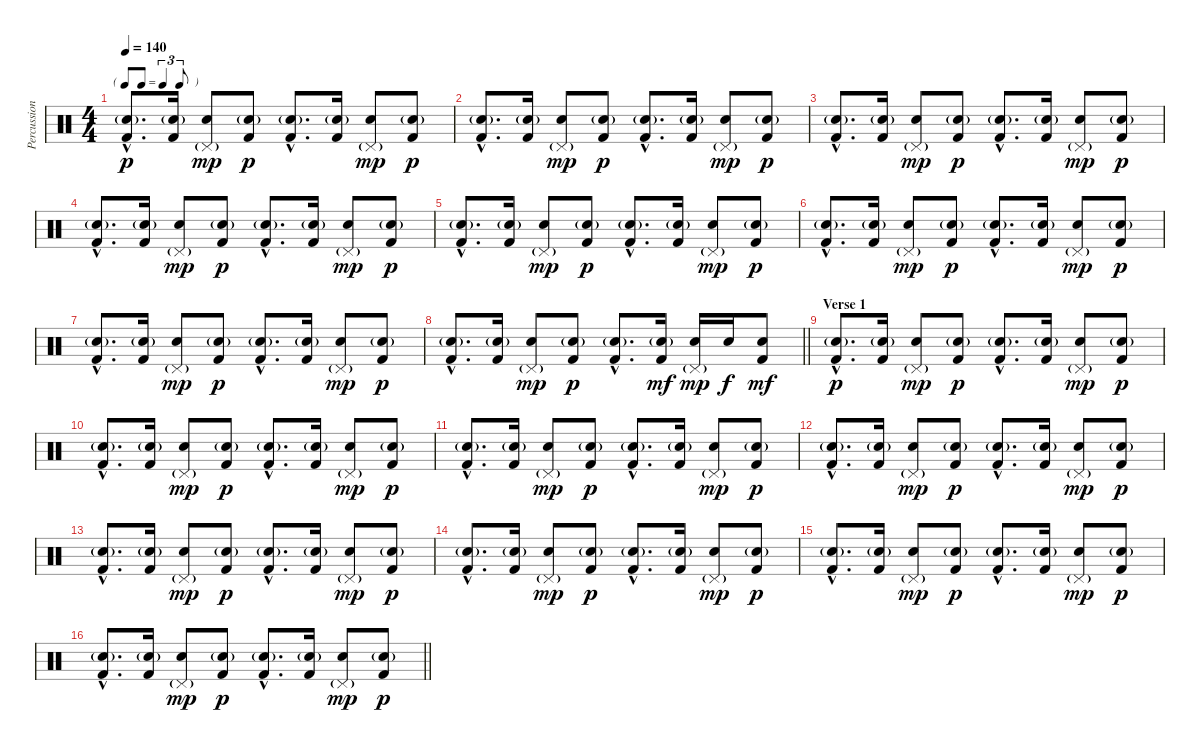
\track ("Percussion" "Percussion") {instrument percussion}
\staff {score}
\articulation defaults
\ts (4 4)
\tf triplet8th
\tempo 140
\clef neutral
\ks c
("Snare (hit) 2"{g hac} "Kick (hit) 2"{hac}).8{d dy p} ("Snare (hit) 2"{g} "Kick (hit) 2").16 ("Pedal Hi-Hat (hit)"{g} "Snare (hit) 2").8{dy mp} ("Snare (hit) 2"{g} "Kick (hit) 2").8{dy p} ("Snare (hit) 2"{g hac} "Kick (hit) 2"{hac}).8{d} ("Snare (hit) 2"{g} "Kick (hit) 2").16 ("Pedal Hi-Hat (hit)"{g} "Snare (hit) 2").8{dy mp} ("Snare (hit) 2"{g} "Kick (hit) 2").8{dy p} |
("Snare (hit) 2"{g hac} "Kick (hit) 2"{hac}).8{d} ("Snare (hit) 2"{g} "Kick (hit) 2").16 ("Pedal Hi-Hat (hit)"{g} "Snare (hit) 2").8{dy mp} ("Snare (hit) 2"{g} "Kick (hit) 2").8{dy p} ("Snare (hit) 2"{g hac} "Kick (hit) 2"{hac}).8{d} ("Snare (hit) 2"{g} "Kick (hit) 2").16 ("Pedal Hi-Hat (hit)"{g} "Snare (hit) 2").8{dy mp} ("Snare (hit) 2"{g} "Kick (hit) 2").8{dy p} |
("Snare (hit) 2"{g hac} "Kick (hit) 2"{hac}).8{d} ("Snare (hit) 2"{g} "Kick (hit) 2").16 ("Pedal Hi-Hat (hit)"{g} "Snare (hit) 2").8{dy mp} ("Snare (hit) 2"{g} "Kick (hit) 2").8{dy p} ("Snare (hit) 2"{g hac} "Kick (hit) 2"{hac}).8{d} ("Snare (hit) 2"{g} "Kick (hit) 2").16 ("Pedal Hi-Hat (hit)"{g} "Snare (hit) 2").8{dy mp} ("Snare (hit) 2"{g} "Kick (hit) 2").8{dy p} |
("Snare (hit) 2"{g hac} "Kick (hit) 2"{hac}).8{d} ("Snare (hit) 2"{g} "Kick (hit) 2").16 ("Pedal Hi-Hat (hit)"{g} "Snare (hit) 2").8{dy mp} ("Snare (hit) 2"{g} "Kick (hit) 2").8{dy p} ("Snare (hit) 2"{g hac} "Kick (hit) 2"{hac}).8{d} ("Snare (hit) 2"{g} "Kick (hit) 2").16 ("Pedal Hi-Hat (hit)"{g} "Snare (hit) 2").8{dy mp} ("Snare (hit) 2"{g} "Kick (hit) 2").8{dy p} |
("Snare (hit) 2"{g hac} "Kick (hit) 2"{hac}).8{d} ("Snare (hit) 2"{g} "Kick (hit) 2").16 ("Pedal Hi-Hat (hit)"{g} "Snare (hit) 2").8{dy mp} ("Snare (hit) 2"{g} "Kick (hit) 2").8{dy p} ("Snare (hit) 2"{g hac} "Kick (hit) 2"{hac}).8{d} ("Snare (hit) 2"{g} "Kick (hit) 2").16 ("Pedal Hi-Hat (hit)"{g} "Snare (hit) 2").8{dy mp} ("Snare (hit) 2"{g} "Kick (hit) 2").8{dy p} |
("Snare (hit) 2"{g hac} "Kick (hit) 2"{hac}).8{d} ("Snare (hit) 2"{g} "Kick (hit) 2").16 ("Pedal Hi-Hat (hit)"{g} "Snare (hit) 2").8{dy mp} ("Snare (hit) 2"{g} "Kick (hit) 2").8{dy p} ("Snare (hit) 2"{g hac} "Kick (hit) 2"{hac}).8{d} ("Snare (hit) 2"{g} "Kick (hit) 2").16 ("Pedal Hi-Hat (hit)"{g} "Snare (hit) 2").8{dy mp} ("Snare (hit) 2"{g} "Kick (hit) 2").8{dy p} |
("Snare (hit) 2"{g hac} "Kick (hit) 2"{hac}).8{d} ("Snare (hit) 2"{g} "Kick (hit) 2").16 ("Pedal Hi-Hat (hit)"{g} "Snare (hit) 2").8{dy mp} ("Snare (hit) 2"{g} "Kick (hit) 2").8{dy p} ("Snare (hit) 2"{g hac} "Kick (hit) 2"{hac}).8{d} ("Snare (hit) 2"{g} "Kick (hit) 2").16 ("Pedal Hi-Hat (hit)"{g} "Snare (hit) 2").8{dy mp} ("Snare (hit) 2"{g} "Kick (hit) 2").8{dy p} |
\barLineRight lightlight
("Snare (hit) 2"{g hac} "Kick (hit) 2"{hac}).8{d} ("Snare (hit) 2"{g} "Kick (hit) 2").16 ("Pedal Hi-Hat (hit)"{g} "Snare (hit) 2").8{dy mp} ("Snare (hit) 2"{g} "Kick (hit) 2").8{dy p} ("Snare (hit) 2"{g hac} "Kick (hit) 2"{hac}).8{d} ("Snare (hit) 2"{g} "Kick (hit) 2").16{dy mf} ("Pedal Hi-Hat (hit)"{g} "Snare (hit) 2").16{dy mp} "Snare (hit) 2".16{dy f} ("Snare (hit) 2" "Kick (hit) 2").8{dy mf} |
\section ("" "Verse 1")
("Snare (hit) 2"{g hac} "Kick (hit) 2"{hac}).8{d dy p} ("Snare (hit) 2"{g} "Kick (hit) 2").16 ("Pedal Hi-Hat (hit)"{g} "Snare (hit) 2").8{dy mp} ("Snare (hit) 2"{g} "Kick (hit) 2").8{dy p} ("Snare (hit) 2"{g hac} "Kick (hit) 2"{hac}).8{d} ("Snare (hit) 2"{g} "Kick (hit) 2").16 ("Pedal Hi-Hat (hit)"{g} "Snare (hit) 2").8{dy mp} ("Snare (hit) 2"{g} "Kick (hit) 2").8{dy p} |
("Snare (hit) 2"{g hac} "Kick (hit) 2"{hac}).8{d} ("Snare (hit) 2"{g} "Kick (hit) 2").16 ("Pedal Hi-Hat (hit)"{g} "Snare (hit) 2").8{dy mp} ("Snare (hit) 2"{g} "Kick (hit) 2").8{dy p} ("Snare (hit) 2"{g hac} "Kick (hit) 2"{hac}).8{d} ("Snare (hit) 2"{g} "Kick (hit) 2").16 ("Pedal Hi-Hat (hit)"{g} "Snare (hit) 2").8{dy mp} ("Snare (hit) 2"{g} "Kick (hit) 2").8{dy p} |
("Snare (hit) 2"{g hac} "Kick (hit) 2"{hac}).8{d} ("Snare (hit) 2"{g} "Kick (hit) 2").16 ("Pedal Hi-Hat (hit)"{g} "Snare (hit) 2").8{dy mp} ("Snare (hit) 2"{g} "Kick (hit) 2").8{dy p} ("Snare (hit) 2"{g hac} "Kick (hit) 2"{hac}).8{d} ("Snare (hit) 2"{g} "Kick (hit) 2").16 ("Pedal Hi-Hat (hit)"{g} "Snare (hit) 2").8{dy mp} ("Snare (hit) 2"{g} "Kick (hit) 2").8{dy p} |
("Snare (hit) 2"{g hac} "Kick (hit) 2"{hac}).8{d} ("Snare (hit) 2"{g} "Kick (hit) 2").16 ("Pedal Hi-Hat (hit)"{g} "Snare (hit) 2").8{dy mp} ("Snare (hit) 2"{g} "Kick (hit) 2").8{dy p} ("Snare (hit) 2"{g hac} "Kick (hit) 2"{hac}).8{d} ("Snare (hit) 2"{g} "Kick (hit) 2").16 ("Pedal Hi-Hat (hit)"{g} "Snare (hit) 2").8{dy mp} ("Snare (hit) 2"{g} "Kick (hit) 2").8{dy p} |
("Snare (hit) 2"{g hac} "Kick (hit) 2"{hac}).8{d} ("Snare (hit) 2"{g} "Kick (hit) 2").16 ("Pedal Hi-Hat (hit)"{g} "Snare (hit) 2").8{dy mp} ("Snare (hit) 2"{g} "Kick (hit) 2").8{dy p} ("Snare (hit) 2"{g hac} "Kick (hit) 2"{hac}).8{d} ("Snare (hit) 2"{g} "Kick (hit) 2").16 ("Pedal Hi-Hat (hit)"{g} "Snare (hit) 2").8{dy mp} ("Snare (hit) 2"{g} "Kick (hit) 2").8{dy p} |
("Snare (hit) 2"{g hac} "Kick (hit) 2"{hac}).8{d} ("Snare (hit) 2"{g} "Kick (hit) 2").16 ("Pedal Hi-Hat (hit)"{g} "Snare (hit) 2").8{dy mp} ("Snare (hit) 2"{g} "Kick (hit) 2").8{dy p} ("Snare (hit) 2"{g hac} "Kick (hit) 2"{hac}).8{d} ("Snare (hit) 2"{g} "Kick (hit) 2").16 ("Pedal Hi-Hat (hit)"{g} "Snare (hit) 2").8{dy mp} ("Snare (hit) 2"{g} "Kick (hit) 2").8{dy p} |
("Snare (hit) 2"{g hac} "Kick (hit) 2"{hac}).8{d} ("Snare (hit) 2"{g} "Kick (hit) 2").16 ("Pedal Hi-Hat (hit)"{g} "Snare (hit) 2").8{dy mp} ("Snare (hit) 2"{g} "Kick (hit) 2").8{dy p} ("Snare (hit) 2"{g hac} "Kick (hit) 2"{hac}).8{d} ("Snare (hit) 2"{g} "Kick (hit) 2").16 ("Pedal Hi-Hat (hit)"{g} "Snare (hit) 2").8{dy mp} ("Snare (hit) 2"{g} "Kick (hit) 2").8{dy p} |
\barLineRight lightlight
("Snare (hit) 2"{g hac} "Kick (hit) 2"{hac}).8{d} ("Snare (hit) 2"{g} "Kick (hit) 2").16 ("Pedal Hi-Hat (hit)"{g} "Snare (hit) 2").8{dy mp} ("Snare (hit) 2"{g} "Kick (hit) 2").8{dy p} ("Snare (hit) 2"{g hac} "Kick (hit) 2"{hac}).8{d} ("Snare (hit) 2"{g} "Kick (hit) 2").16 ("Pedal Hi-Hat (hit)"{g} "Snare (hit) 2").8{dy mp} ("Snare (hit) 2"{g} "Kick (hit) 2").8{dy p}
